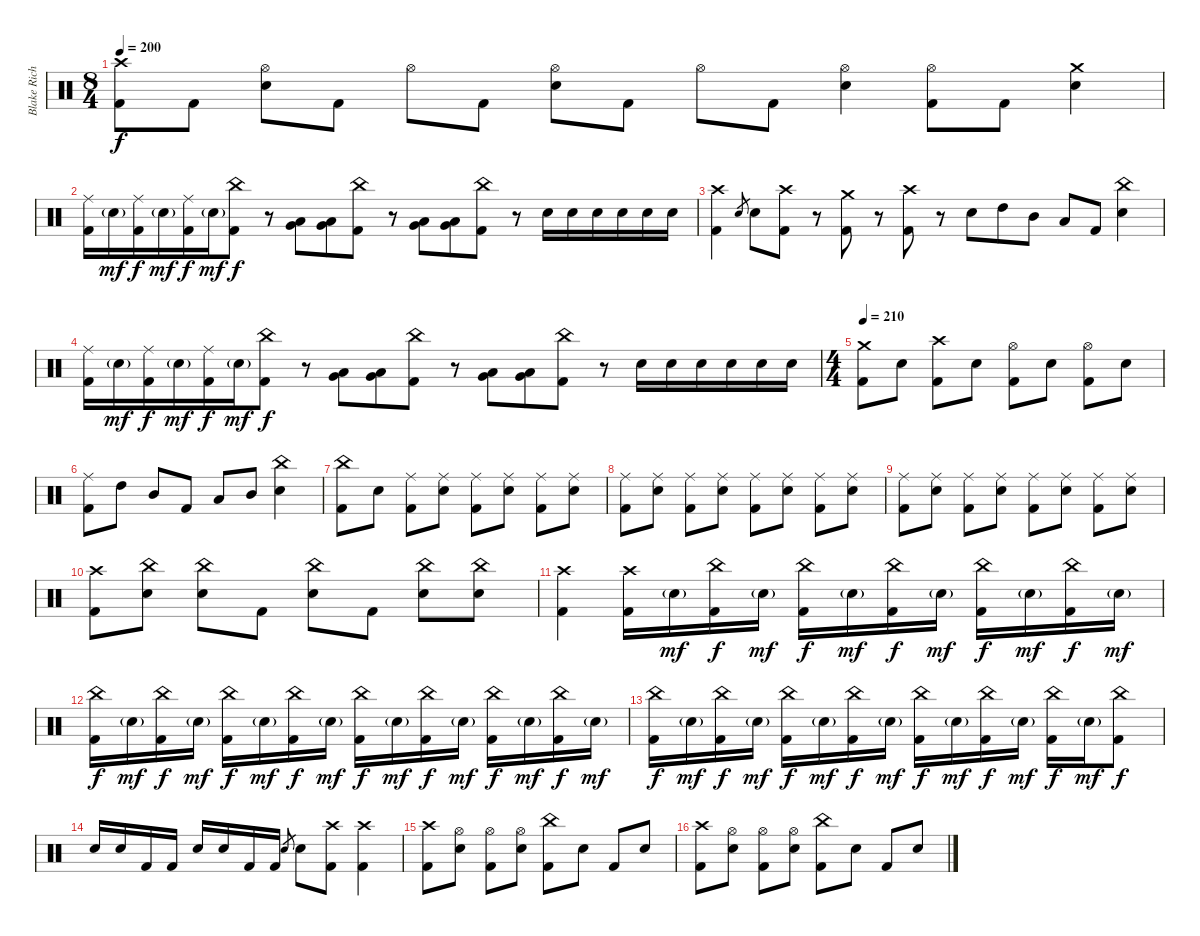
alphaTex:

\track ("Blake Richardson" "Blake Rich") {instrument percussion}
\staff {score}
\articulation defaults
\ts (8 4)
\tempo 200
\clef neutral
\ks c
("Crash high (hit)" "Kick (hit) 2").8{dy f} "Kick (hit) 2".8 ("Hi-Hat (open)" "Electric Snare (hit)").8 "Kick (hit) 2".8 "Hi-Hat (open)".8 "Kick (hit) 2".8 ("Hi-Hat (open)" "Electric Snare (hit)").8 "Kick (hit) 2".8 "Hi-Hat (open)".8 "Kick (hit) 2".8 ("Hi-Hat (open)" "Electric Snare (hit)").4 ("Hi-Hat (open)" "Kick (hit) 2").8 "Kick (hit) 2".8 ("Crash medium (hit)" "Electric Snare (hit)").4 |
("Ride (middle)" "Kick (hit) 2").16 "Electric Snare (hit)"{g}.16{dy mf} ("Ride (middle)" "Kick (hit) 2").16{dy f} "Electric Snare (hit)"{g}.16{dy mf beam merge} ("Ride (middle)" "Kick (hit) 2").16{dy f} "Electric Snare (hit)"{g}.16{dy mf} ("China (hit)" "Kick (hit) 2").8{dy f} r.8 ("Low Tom (hit)" "Very Low Tom (hit)").8{beam merge} ("Low Tom (hit)" "Very Low Tom (hit)").8 ("China (hit)" "Kick (hit) 2").8 r.8 ("Low Tom (hit)" "Very Low Tom (hit)").8{beam merge} ("Low Tom (hit)" "Very Low Tom (hit)").8 ("China (hit)" "Kick (hit) 2").8 r.8 "Electric Snare (hit)".16 "Electric Snare (hit)".16{beam merge} "Electric Snare (hit)".16 "Electric Snare (hit)".16 "Electric Snare (hit)".16 "Electric Snare (hit)".16 |
("Crash high (hit)" "Kick (hit) 2").4 "Electric Snare (hit)".8{gr} "Electric Snare (hit)".8 ("Crash high (hit)" "Kick (hit) 2").8 r.8 ("Crash medium (hit)" "Kick (hit) 2").8 r.8 ("Crash high (hit)" "Kick (hit) 2").8 r.8 "Electric Snare (hit)".8{beam merge} "High Tom (hit)".8 "Mid Tom (hit)".8 "Low Tom (hit)".8 "Kick (hit) 2".8 ("China (hit)" "Electric Snare (hit)").4 |
("Ride (middle)" "Kick (hit) 2").16 "Electric Snare (hit)"{g}.16{dy mf} ("Ride (middle)" "Kick (hit) 2").16{dy f} "Electric Snare (hit)"{g}.16{dy mf beam merge} ("Ride (middle)" "Kick (hit) 2").16{dy f} "Electric Snare (hit)"{g}.16{dy mf} ("China (hit)" "Kick (hit) 2").8{dy f} r.8 ("Low Tom (hit)" "Very Low Tom (hit)").8{beam merge} ("Low Tom (hit)" "Very Low Tom (hit)").8 ("China (hit)" "Kick (hit) 2").8 r.8 ("Low Tom (hit)" "Very Low Tom (hit)").8{beam merge} ("Low Tom (hit)" "Very Low Tom (hit)").8 ("China (hit)" "Kick (hit) 2").8 r.8 "Electric Snare (hit)".16 "Electric Snare (hit)".16{beam merge} "Electric Snare (hit)".16 "Electric Snare (hit)".16 "Electric Snare (hit)".16 "Electric Snare (hit)".16 |
\ts (4 4)
\tempo 210
("Crash medium (hit)" "Kick (hit) 2").8 "Electric Snare (hit)".8 ("Crash high (hit)" "Kick (hit) 2").8 "Electric Snare (hit)".8 ("Hi-Hat (open)" "Kick (hit) 2").8 "Electric Snare (hit)".8 ("Hi-Hat (open)" "Kick (hit) 2").8 "Electric Snare (hit)".8 |
("Ride (middle)" "Kick (hit) 2").8 "High Tom (hit)".8 "Mid Tom (hit)".8 "Kick (hit) 2".8 "Low Tom (hit)".8 "Mid Tom (hit)".8 ("China (hit)" "Electric Snare (hit)").4 |
("China (hit)" "Kick (hit) 2").8 "Electric Snare (hit)".8 ("Ride (middle)" "Kick (hit) 2").8 ("Ride (middle)" "Electric Snare (hit)").8 ("Ride (middle)" "Kick (hit) 2").8 ("Ride (middle)" "Electric Snare (hit)").8 ("Ride (middle)" "Kick (hit) 2").8 ("Ride (middle)" "Electric Snare (hit)").8 |
("Ride (middle)" "Kick (hit) 2").8 ("Ride (middle)" "Electric Snare (hit)").8 ("Ride (middle)" "Kick (hit) 2").8 ("Ride (middle)" "Electric Snare (hit)").8 ("Ride (middle)" "Kick (hit) 2").8 ("Ride (middle)" "Electric Snare (hit)").8 ("Ride (middle)" "Kick (hit) 2").8 ("Ride (middle)" "Electric Snare (hit)").8 |
("Ride (middle)" "Kick (hit) 2").8 ("Ride (middle)" "Electric Snare (hit)").8 ("Ride (middle)" "Kick (hit) 2").8 ("Ride (middle)" "Electric Snare (hit)").8 ("Ride (middle)" "Kick (hit) 2").8 ("Ride (middle)" "Electric Snare (hit)").8 ("Ride (middle)" "Kick (hit) 2").8 ("Ride (middle)" "Electric Snare (hit)").8 |
("Crash high (hit)" "Kick (hit) 2").8 ("China (hit)" "Electric Snare (hit)").8 ("China (hit)" "Electric Snare (hit)").8 "Kick (hit) 2".8 ("China (hit)" "Electric Snare (hit)").8 "Kick (hit) 2".8 ("China (hit)" "Electric Snare (hit)").8 ("China (hit)" "Electric Snare (hit)").8 |
("Crash high (hit)" "Kick (hit) 2").4 ("Crash high (hit)" "Kick (hit) 2").16 "Electric Snare (hit)"{g}.16{dy mf} ("China (hit)" "Kick (hit) 2").16{dy f} "Electric Snare (hit)"{g}.16{dy mf} ("China (hit)" "Kick (hit) 2").16{dy f} "Electric Snare (hit)"{g}.16{dy mf} ("China (hit)" "Kick (hit) 2").16{dy f} "Electric Snare (hit)"{g}.16{dy mf} ("China (hit)" "Kick (hit) 2").16{dy f} "Electric Snare (hit)"{g}.16{dy mf} ("China (hit)" "Kick (hit) 2").16{dy f} "Electric Snare (hit)"{g}.16{dy mf} |
("China (hit)" "Kick (hit) 2").16{dy f} "Electric Snare (hit)"{g}.16{dy mf} ("China (hit)" "Kick (hit) 2").16{dy f} "Electric Snare (hit)"{g}.16{dy mf} ("China (hit)" "Kick (hit) 2").16{dy f} "Electric Snare (hit)"{g}.16{dy mf} ("China (hit)" "Kick (hit) 2").16{dy f} "Electric Snare (hit)"{g}.16{dy mf} ("China (hit)" "Kick (hit) 2").16{dy f} "Electric Snare (hit)"{g}.16{dy mf} ("China (hit)" "Kick (hit) 2").16{dy f} "Electric Snare (hit)"{g}.16{dy mf} ("China (hit)" "Kick (hit) 2").16{dy f} "Electric Snare (hit)"{g}.16{dy mf} ("China (hit)" "Kick (hit) 2").16{dy f} "Electric Snare (hit)"{g}.16{dy mf} |
("China (hit)" "Kick (hit) 2").16{dy f} "Electric Snare (hit)"{g}.16{dy mf} ("China (hit)" "Kick (hit) 2").16{dy f} "Electric Snare (hit)"{g}.16{dy mf} ("China (hit)" "Kick (hit) 2").16{dy f} "Electric Snare (hit)"{g}.16{dy mf} ("China (hit)" "Kick (hit) 2").16{dy f} "Electric Snare (hit)"{g}.16{dy mf} ("China (hit)" "Kick (hit) 2").16{dy f} "Electric Snare (hit)"{g}.16{dy mf} ("China (hit)" "Kick (hit) 2").16{dy f} "Electric Snare (hit)"{g}.16{dy mf} ("China (hit)" "Kick (hit) 2").16{dy f} "Electric Snare (hit)"{g}.16{dy mf} ("China (hit)" "Kick (hit) 2").8{dy f} |
"Electric Snare (hit)".16 "Electric Snare (hit)".16 "Kick (hit) 2".16 "Kick (hit) 2".16 "Electric Snare (hit)".16 "Electric Snare (hit)".16 "Kick (hit) 2".16 "Kick (hit) 2".16 "Electric Snare (hit)".8{gr} "Electric Snare (hit)".8 ("Crash high (hit)" "Kick (hit) 2").8 ("Crash high (hit)" "Kick (hit) 2").4 |
("Crash high (hit)" "Kick (hit) 2").8 ("Hi-Hat (open)" "Electric Snare (hit)").8 ("Hi-Hat (open)" "Kick (hit) 2").8 ("Hi-Hat (open)" "Electric Snare (hit)").8 ("China (hit)" "Kick (hit) 2").8 "Electric Snare (hit)".8 "Kick (hit) 2".8 "Electric Snare (hit)".8 |
("Crash high (hit)" "Kick (hit) 2").8 ("Hi-Hat (open)" "Electric Snare (hit)").8 ("Hi-Hat (open)" "Kick (hit) 2").8 ("Hi-Hat (open)" "Electric Snare (hit)").8 ("China (hit)" "Kick (hit) 2").8 "Electric Snare (hit)".8 "Kick (hit) 2".8 "Electric Snare (hit)".8
